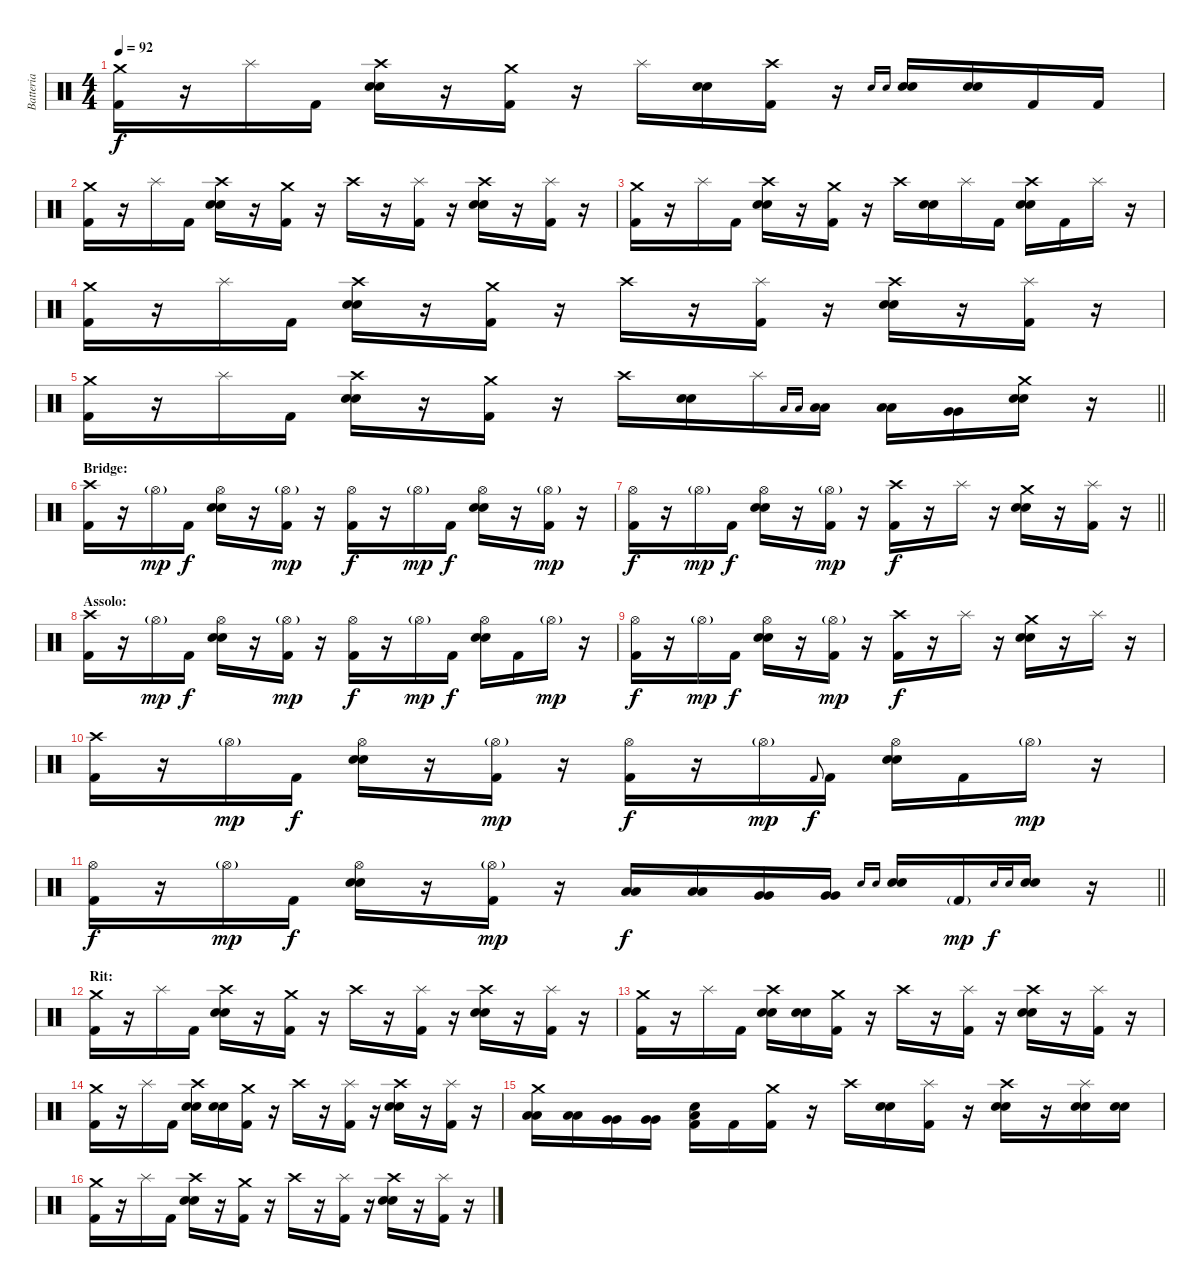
\track ("Batteria" "Batteria") {instrument percussion}
\staff {score}
\articulation defaults
\ts (4 4)
\tempo 92
\clef neutral
\ks c
("Kick (hit) 2" "Crash medium (hit)").16{dy f} r.16 "Splash (hit)".16 "Kick (hit) 2".16 ("Snare (hit) 2" "Snare (hit) 2" "Crash high (hit)").16 r.16 ("Kick (hit) 2" "Crash medium (hit)").16 r.16 "Splash (hit)".16 ("Snare (hit) 2" "Snare (hit) 2").16 ("Kick (hit) 2" "Crash high (hit)").16 r.16 "Snare (hit) 2".16{gr onbeat} "Snare (hit) 2".16{gr onbeat} ("Snare (hit) 2" "Snare (hit) 2").16 ("Snare (hit) 2" "Snare (hit) 2").16 "Kick (hit) 2".16 "Kick (hit) 2".16 |
("Kick (hit) 2" "Crash medium (hit)").16 r.16 "Splash (hit)".16 "Kick (hit) 2".16 ("Snare (hit) 2" "Snare (hit) 2" "Crash high (hit)").16 r.16 ("Kick (hit) 2" "Crash medium (hit)").16 r.16 "Crash high (hit)".16 r.16 ("Kick (hit) 2" "Splash (hit)").16 r.16 ("Snare (hit) 2" "Snare (hit) 2" "Crash high (hit)").16 r.16 ("Kick (hit) 2" "Splash (hit)").16 r.16 |
("Kick (hit) 2" "Crash medium (hit)").16 r.16 "Splash (hit)".16 "Kick (hit) 2".16 ("Snare (hit) 2" "Snare (hit) 2" "Crash high (hit)").16 r.16 ("Kick (hit) 2" "Crash medium (hit)").16 r.16 "Crash high (hit)".16 ("Snare (hit) 2" "Snare (hit) 2").16 "Splash (hit)".16 "Kick (hit) 2".16 ("Snare (hit) 2" "Snare (hit) 2" "Crash high (hit)").16 "Kick (hit) 2".16 "Splash (hit)".16 r.16 |
("Kick (hit) 2" "Crash medium (hit)").16 r.16 "Splash (hit)".16 "Kick (hit) 2".16 ("Snare (hit) 2" "Snare (hit) 2" "Crash high (hit)").16 r.16 ("Kick (hit) 2" "Crash medium (hit)").16 r.16 "Crash high (hit)".16 r.16 ("Kick (hit) 2" "Splash (hit)").16 r.16 ("Snare (hit) 2" "Snare (hit) 2" "Crash high (hit)").16 r.16 ("Kick (hit) 2" "Splash (hit)").16 r.16 |
\barLineRight lightlight
("Kick (hit) 2" "Crash medium (hit)").16 r.16 "Splash (hit)".16 "Kick (hit) 2".16 ("Snare (hit) 2" "Snare (hit) 2" "Crash high (hit)").16 r.16 ("Kick (hit) 2" "Crash medium (hit)").16 r.16 "Crash high (hit)".16 ("Snare (hit) 2" "Snare (hit) 2").16 "Splash (hit)".16 "Low Tom (hit)".16{gr onbeat} "Low Tom (hit)".16{gr onbeat} ("Low Tom (hit)" "Low Tom (hit)").16 ("Low Tom (hit)" "Low Tom (hit)").16 ("Very Low Tom (hit)" "Very Low Tom (hit)").16 ("Snare (hit) 2" "Snare (hit) 2" "Crash medium (hit)").16 r.16 |
\section ("" "Bridge:")
("Kick (hit) 2" "Crash high (hit)").16 r.16 "Hi-Hat (open)"{g}.16{dy mp} "Kick (hit) 2".16{dy f} ("Snare (hit) 2" "Snare (hit) 2" "Hi-Hat (open)").16 r.16 ("Kick (hit) 2" "Hi-Hat (open)"{g}).16{dy mp} r.16 ("Kick (hit) 2" "Hi-Hat (open)").16{dy f} r.16 "Hi-Hat (open)"{g}.16{dy mp} "Kick (hit) 2".16{dy f} ("Snare (hit) 2" "Snare (hit) 2" "Hi-Hat (open)").16 r.16 ("Kick (hit) 2" "Hi-Hat (open)"{g}).16{dy mp} r.16 |
\barLineRight lightlight
("Kick (hit) 2" "Hi-Hat (open)").16{dy f} r.16 "Hi-Hat (open)"{g}.16{dy mp} "Kick (hit) 2".16{dy f} ("Snare (hit) 2" "Snare (hit) 2" "Hi-Hat (open)").16 r.16 ("Kick (hit) 2" "Hi-Hat (open)"{g}).16{dy mp} r.16 ("Kick (hit) 2" "Crash high (hit)").16{dy f} r.16 "Splash (hit)".16 r.16 ("Snare (hit) 2" "Snare (hit) 2" "Crash medium (hit)").16 r.16 ("Kick (hit) 2" "Splash (hit)").16 r.16 |
\section ("" "Assolo:")
("Kick (hit) 2" "Crash high (hit)").16 r.16 "Hi-Hat (open)"{g}.16{dy mp} "Kick (hit) 2".16{dy f} ("Snare (hit) 2" "Snare (hit) 2" "Hi-Hat (open)").16 r.16 ("Kick (hit) 2" "Hi-Hat (open)"{g}).16{dy mp} r.16 ("Kick (hit) 2" "Hi-Hat (open)").16{dy f} r.16 "Hi-Hat (open)"{g}.16{dy mp} "Kick (hit) 2".16{dy f} ("Snare (hit) 2" "Snare (hit) 2" "Hi-Hat (open)").16 "Kick (hit) 2".16 "Hi-Hat (open)"{g}.16{dy mp} r.16 |
("Kick (hit) 2" "Hi-Hat (open)").16{dy f} r.16 "Hi-Hat (open)"{g}.16{dy mp} "Kick (hit) 2".16{dy f} ("Snare (hit) 2" "Snare (hit) 2" "Hi-Hat (open)").16 r.16 ("Kick (hit) 2" "Hi-Hat (open)"{g}).16{dy mp} r.16 ("Kick (hit) 2" "Crash high (hit)").16{dy f} r.16 "Splash (hit)".16 r.16 ("Snare (hit) 2" "Snare (hit) 2" "Crash medium (hit)").16 r.16 "Splash (hit)".16 r.16 |
("Kick (hit) 2" "Crash high (hit)").16 r.16 "Hi-Hat (open)"{g}.16{dy mp} "Kick (hit) 2".16{dy f} ("Snare (hit) 2" "Snare (hit) 2" "Hi-Hat (open)").16 r.16 ("Kick (hit) 2" "Hi-Hat (open)"{g}).16{dy mp} r.16 ("Kick (hit) 2" "Hi-Hat (open)").16{dy f} r.16 "Hi-Hat (open)"{g}.16{dy mp} "Kick (hit) 2".8{gr onbeat dy f} "Kick (hit) 2".16 ("Snare (hit) 2" "Snare (hit) 2" "Hi-Hat (open)").16 "Kick (hit) 2".16 "Hi-Hat (open)"{g}.16{dy mp} r.16 |
\barLineRight lightlight
("Kick (hit) 2" "Hi-Hat (open)").16{dy f} r.16 "Hi-Hat (open)"{g}.16{dy mp} "Kick (hit) 2".16{dy f} ("Snare (hit) 2" "Snare (hit) 2" "Hi-Hat (open)").16 r.16 ("Kick (hit) 2" "Hi-Hat (open)"{g}).16{dy mp} r.16 ("Low Tom (hit)" "Low Tom (hit)").16{dy f} ("Low Tom (hit)" "Low Tom (hit)").16 ("Very Low Tom (hit)" "Very Low Tom (hit)").16 ("Very Low Tom (hit)" "Very Low Tom (hit)").16 "Snare (hit) 2".16{gr onbeat} "Snare (hit) 2".16{gr onbeat} ("Snare (hit) 2" "Snare (hit) 2").16 "Kick (hit) 2"{g}.16{dy mp} "Snare (hit) 2".16{gr onbeat dy f} "Snare (hit) 2".16{gr onbeat} ("Snare (hit) 2" "Snare (hit) 2").16 r.16 |
\section ("" "Rit:")
("Kick (hit) 2" "Crash medium (hit)").16 r.16 "Splash (hit)".16 "Kick (hit) 2".16 ("Snare (hit) 2" "Snare (hit) 2" "Crash high (hit)").16 r.16 ("Kick (hit) 2" "Crash medium (hit)").16 r.16 "Crash high (hit)".16 r.16 ("Kick (hit) 2" "Splash (hit)").16 r.16 ("Snare (hit) 2" "Snare (hit) 2" "Crash high (hit)").16 r.16 ("Kick (hit) 2" "Splash (hit)").16 r.16 |
("Kick (hit) 2" "Crash medium (hit)").16 r.16 "Splash (hit)".16 "Kick (hit) 2".16 ("Snare (hit) 2" "Snare (hit) 2" "Crash high (hit)").16 ("Snare (hit) 2" "Snare (hit) 2").16 ("Kick (hit) 2" "Crash medium (hit)").16 r.16 "Crash high (hit)".16 r.16 ("Kick (hit) 2" "Splash (hit)").16 r.16 ("Snare (hit) 2" "Snare (hit) 2" "Crash high (hit)").16 r.16 ("Kick (hit) 2" "Splash (hit)").16 r.16 |
("Kick (hit) 2" "Crash medium (hit)").16 r.16 "Splash (hit)".16 "Kick (hit) 2".16 ("Snare (hit) 2" "Snare (hit) 2" "Crash high (hit)").16 ("Snare (hit) 2" "Snare (hit) 2").16 ("Kick (hit) 2" "Crash medium (hit)").16 r.16 "Crash high (hit)".16 r.16 ("Kick (hit) 2" "Splash (hit)").16 r.16 ("Snare (hit) 2" "Snare (hit) 2" "Crash high (hit)").16 r.16 ("Kick (hit) 2" "Splash (hit)").16 r.16 |
("Low Tom (hit)" "Low Tom (hit)" "Crash medium (hit)").16 ("Low Tom (hit)" "Low Tom (hit)").16 ("Very Low Tom (hit)" "Very Low Tom (hit)").16 ("Very Low Tom (hit)" "Very Low Tom (hit)").16 ("Kick (hit) 2" "Snare (hit) 2" "Low Floor Tom (hit)").16 "Kick (hit) 2".16 ("Kick (hit) 2" "Crash medium (hit)").16 r.16 "Crash high (hit)".16 ("Snare (hit) 2" "Snare (hit) 2").16 ("Kick (hit) 2" "Splash (hit)").16 r.16 ("Snare (hit) 2" "Snare (hit) 2" "Crash high (hit)").16 r.16 ("Snare (hit) 2" "Snare (hit) 2" "Splash (hit)").16 ("Snare (hit) 2" "Snare (hit) 2").16 |
("Kick (hit) 2" "Crash medium (hit)").16 r.16 "Splash (hit)".16 "Kick (hit) 2".16 ("Snare (hit) 2" "Snare (hit) 2" "Crash high (hit)").16 r.16 ("Kick (hit) 2" "Crash medium (hit)").16 r.16 "Crash high (hit)".16 r.16 ("Kick (hit) 2" "Splash (hit)").16 r.16 ("Snare (hit) 2" "Snare (hit) 2" "Crash high (hit)").16 r.16 ("Kick (hit) 2" "Splash (hit)").16 r.16
